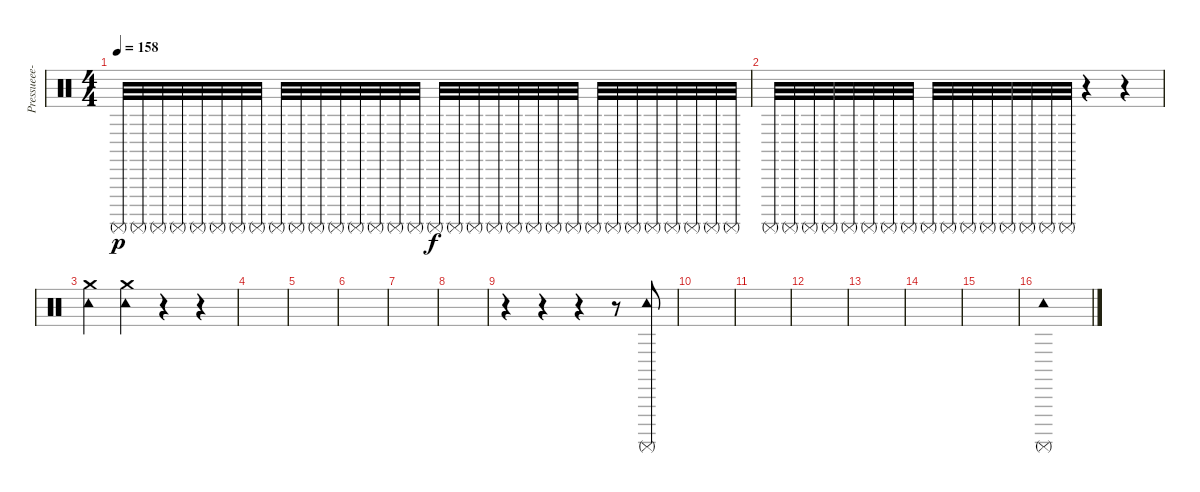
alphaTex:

\track ("" "Pressueee-") {instrument percussion}
\staff {score}
\articulation defaults
\ts (4 4)
\tempo 158
\clef neutral
\ks c "Surdo (mute)".32{dy p} "Surdo (mute)".32 "Surdo (mute)".32 "Surdo (mute)".32 "Surdo (mute)".32 "Surdo (mute)".32 "Surdo (mute)".32 "Surdo (mute)".32 "Surdo (mute)".32 "Surdo (mute)".32 "Surdo (mute)".32 "Surdo (mute)".32 "Surdo (mute)".32 "Surdo (mute)".32 "Surdo (mute)".32 "Surdo (mute)".32 "Surdo (mute)".32{dy f} "Surdo (mute)".32 "Surdo (mute)".32 "Surdo (mute)".32 "Surdo (mute)".32 "Surdo (mute)".32 "Surdo (mute)".32 "Surdo (mute)".32 "Surdo (mute)".32 "Surdo (mute)".32 "Surdo (mute)".32 "Surdo (mute)".32 "Surdo (mute)".32 "Surdo (mute)".32 "Surdo (mute)".32 "Surdo (mute)".32
|
"Surdo (mute)".32 "Surdo (mute)".32 "Surdo (mute)".32 "Surdo (mute)".32 "Surdo (mute)".32 "Surdo (mute)".32 "Surdo (mute)".32 "Surdo (mute)".32 "Surdo (mute)".32 "Surdo (mute)".32 "Surdo (mute)".32 "Surdo (mute)".32 "Surdo (mute)".32 "Surdo (mute)".32 "Surdo (mute)".32 "Surdo (mute)".32 r.4 r.4 |
("Tambourine (hit)" "Crash medium (hit)").4 ("Tambourine (hit)" "Crash medium (hit)").4 r.4 r.4 |
|
|
|
|
|
r.4 r.4 r.4 r.8 ("Tambourine (hit)" "Surdo (mute)").8 |
|
|
|
|
|
|
("Tambourine (hit)" "Surdo (mute)").1
